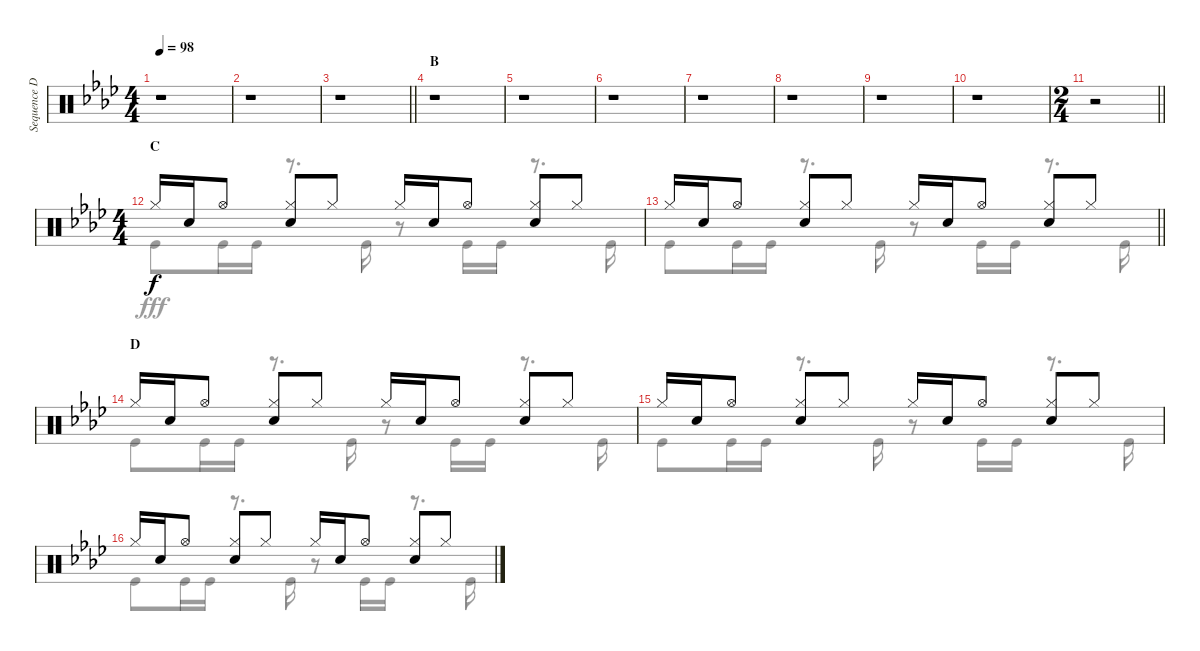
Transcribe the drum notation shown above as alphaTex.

\track ("Sequence Drums II" "Sequence D") {instrument percussion}
\staff {score}
\articulation defaults
\voice
\ts (4 4)
\tempo 98
\clef neutral
\ks ab
r.1{dy f} |
r.1 |
\barLineRight lightlight
r.1 |
\section ("" "B")
r.1 |
r.1 |
r.1 |
r.1 |
r.1 |
r.1 |
r.1 |
\ts (2 4)
\barLineRight lightlight
r.2 |
\ts (4 4)
\section ("" "C")
"Hi-Hat (closed)".16 "Snare (hit) 2".16 "Hi-Hat (open)".8 ("Hi-Hat (closed)" "Snare (hit) 2").8 "Hi-Hat (closed)".8 "Hi-Hat (closed)".16 "Snare (hit) 2".16 "Hi-Hat (open)".8 ("Hi-Hat (closed)" "Snare (hit) 2").8 "Hi-Hat (closed)".8 |
\barLineRight lightlight "Hi-Hat (closed)".16 "Snare (hit) 2".16 "Hi-Hat (open)".8
("Hi-Hat (closed)" "Snare (hit) 2").8 "Hi-Hat (closed)".8 "Hi-Hat (closed)".16 "Snare (hit) 2".16 "Hi-Hat (open)".8 ("Hi-Hat (closed)" "Snare (hit) 2").8 "Hi-Hat (closed)".8 |
\section ("" "D")
"Hi-Hat (closed)".16 "Snare (hit) 2".16 "Hi-Hat (open)".8 ("Hi-Hat (closed)" "Snare (hit) 2").8 "Hi-Hat (closed)".8 "Hi-Hat (closed)".16 "Snare (hit) 2".16 "Hi-Hat (open)".8 ("Hi-Hat (closed)" "Snare (hit) 2").8 "Hi-Hat (closed)".8 |
"Hi-Hat (closed)".16 "Snare (hit) 2".16 "Hi-Hat (open)".8 ("Hi-Hat (closed)" "Snare (hit) 2").8 "Hi-Hat (closed)".8 "Hi-Hat (closed)".16 "Snare (hit) 2".16 "Hi-Hat (open)".8 ("Hi-Hat (closed)" "Snare (hit) 2").8 "Hi-Hat (closed)".8 |
"Hi-Hat (closed)".16 "Snare (hit) 2".16 "Hi-Hat (open)".8 ("Hi-Hat (closed)" "Snare (hit) 2").8 "Hi-Hat (closed)".8 "Hi-Hat (closed)".16 "Snare (hit) 2".16 "Hi-Hat (open)".8 ("Hi-Hat (closed)" "Snare (hit) 2").8 "Hi-Hat (closed)".8
\voice
\clef neutral
\ottava regular
\simile none
\ks ab
r.1{dy fff} |
r.1 |
\barLineRight lightlight
r.1 |
r.1 |
r.1 |
r.1 |
r.1 |
r.1 |
r.1 |
r.1 |
\barLineRight lightlight
r.2 |
"Kick (hit)".8 "Kick (hit)".16 "Kick (hit)".16 r.8{d} "Kick (hit)".16 r.8 "Kick (hit)".16 "Kick (hit)".16 r.8{d} "Kick (hit)".16 |
\barLineRight lightlight "Kick (hit)".8 "Kick (hit)".16 "Kick (hit)".16
r.8{d} "Kick (hit)".16 r.8 "Kick (hit)".16 "Kick (hit)".16 r.8{d} "Kick (hit)".16 |
"Kick (hit)".8 "Kick (hit)".16 "Kick (hit)".16 r.8{d} "Kick (hit)".16 r.8 "Kick (hit)".16 "Kick (hit)".16 r.8{d} "Kick (hit)".16 |
"Kick (hit)".8 "Kick (hit)".16 "Kick (hit)".16 r.8{d} "Kick (hit)".16 r.8 "Kick (hit)".16 "Kick (hit)".16 r.8{d} "Kick (hit)".16 |
"Kick (hit)".8 "Kick (hit)".16 "Kick (hit)".16 r.8{d} "Kick (hit)".16 r.8 "Kick (hit)".16 "Kick (hit)".16 r.8{d} "Kick (hit)".16
